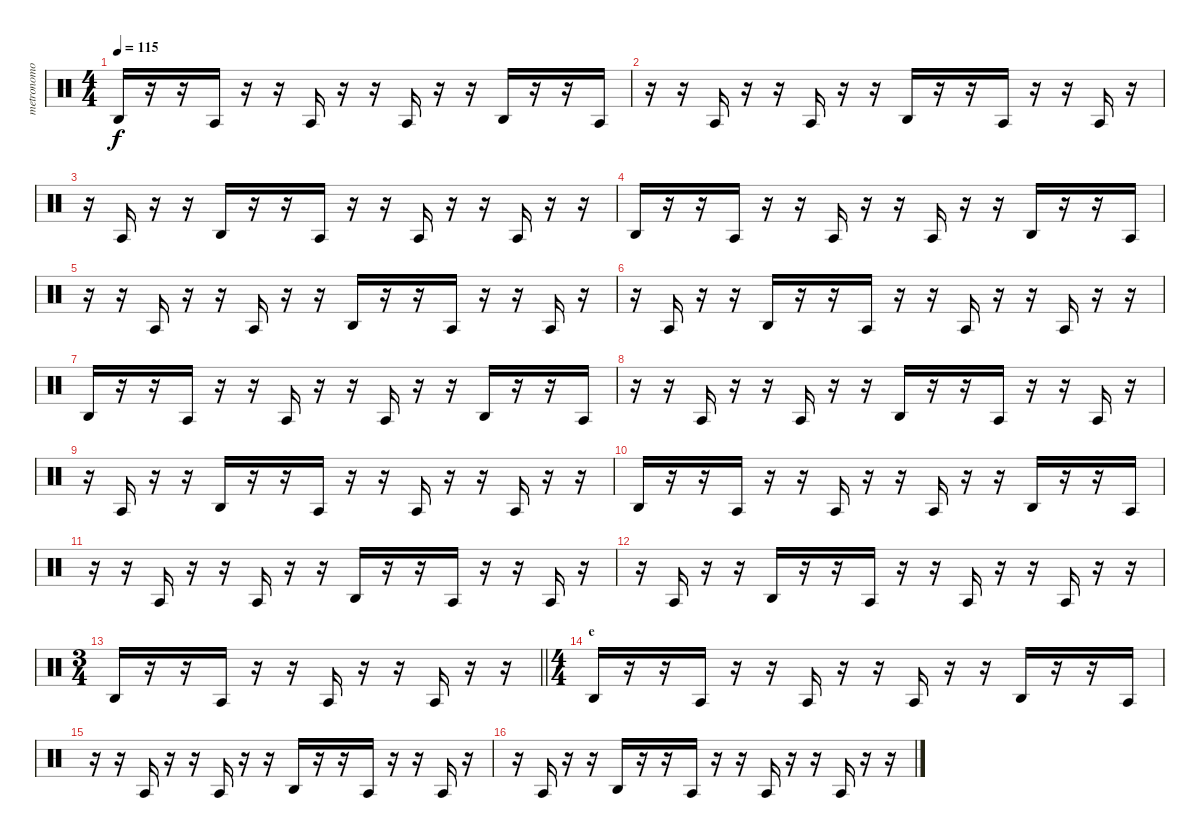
\track ("metronomo" "metronomo") {mute instrument percussion}
\staff {score}
\articulation defaults
\ts (4 4)
\tempo 115
\clef neutral
\ks c "Agogo high (hit)".16{dy f}
r.16 r.16 "Agogo tow (hit)".16 r.16 r.16 "Agogo tow (hit)".16 r.16 r.16 "Agogo tow (hit)".16 r.16 r.16 "Agogo high (hit)".16 r.16 r.16 "Agogo tow (hit)".16 |
r.16 r.16 "Agogo tow (hit)".16 r.16 r.16 "Agogo tow (hit)".16 r.16 r.16 "Agogo high (hit)".16 r.16 r.16 "Agogo tow (hit)".16 r.16 r.16 "Agogo tow (hit)".16 r.16 |
r.16 "Agogo tow (hit)".16 r.16 r.16 "Agogo high (hit)".16 r.16 r.16 "Agogo tow (hit)".16 r.16 r.16 "Agogo tow (hit)".16 r.16 r.16 "Agogo tow (hit)".16 r.16 r.16 |
"Agogo high (hit)".16 r.16 r.16 "Agogo tow (hit)".16 r.16 r.16 "Agogo tow (hit)".16 r.16 r.16 "Agogo tow (hit)".16 r.16 r.16 "Agogo high (hit)".16 r.16 r.16 "Agogo tow (hit)".16 |
r.16 r.16 "Agogo tow (hit)".16 r.16 r.16 "Agogo tow (hit)".16 r.16 r.16 "Agogo high (hit)".16 r.16 r.16 "Agogo tow (hit)".16 r.16 r.16 "Agogo tow (hit)".16 r.16 |
r.16 "Agogo tow (hit)".16 r.16 r.16 "Agogo high (hit)".16 r.16 r.16 "Agogo tow (hit)".16 r.16 r.16 "Agogo tow (hit)".16 r.16 r.16 "Agogo tow (hit)".16 r.16 r.16 |
"Agogo high (hit)".16 r.16 r.16 "Agogo tow (hit)".16 r.16 r.16 "Agogo tow (hit)".16 r.16 r.16 "Agogo tow (hit)".16 r.16 r.16 "Agogo high (hit)".16 r.16 r.16 "Agogo tow (hit)".16 |
r.16 r.16 "Agogo tow (hit)".16 r.16 r.16 "Agogo tow (hit)".16 r.16 r.16 "Agogo high (hit)".16 r.16 r.16 "Agogo tow (hit)".16 r.16 r.16 "Agogo tow (hit)".16 r.16 |
r.16 "Agogo tow (hit)".16 r.16 r.16 "Agogo high (hit)".16 r.16 r.16 "Agogo tow (hit)".16 r.16 r.16 "Agogo tow (hit)".16 r.16 r.16 "Agogo tow (hit)".16 r.16 r.16 |
"Agogo high (hit)".16 r.16 r.16 "Agogo tow (hit)".16 r.16 r.16 "Agogo tow (hit)".16 r.16 r.16 "Agogo tow (hit)".16 r.16 r.16 "Agogo high (hit)".16 r.16 r.16 "Agogo tow (hit)".16 |
r.16 r.16 "Agogo tow (hit)".16 r.16 r.16 "Agogo tow (hit)".16 r.16 r.16 "Agogo high (hit)".16 r.16 r.16 "Agogo tow (hit)".16 r.16 r.16 "Agogo tow (hit)".16 r.16 |
r.16 "Agogo tow (hit)".16 r.16 r.16 "Agogo high (hit)".16 r.16 r.16 "Agogo tow (hit)".16 r.16 r.16 "Agogo tow (hit)".16 r.16 r.16 "Agogo tow (hit)".16 r.16 r.16 |
\ts (3 4)
\barLineRight lightlight "Agogo high (hit)".16
r.16 r.16 "Agogo tow (hit)".16 r.16 r.16 "Agogo tow (hit)".16 r.16 r.16 "Agogo tow (hit)".16 r.16 r.16 |
\ts (4 4)
\section ("" "e")
"Agogo high (hit)".16 r.16 r.16 "Agogo tow (hit)".16 r.16 r.16 "Agogo tow (hit)".16 r.16 r.16 "Agogo tow (hit)".16 r.16 r.16 "Agogo high (hit)".16 r.16 r.16 "Agogo tow (hit)".16 |
r.16 r.16 "Agogo tow (hit)".16 r.16 r.16 "Agogo tow (hit)".16 r.16 r.16 "Agogo high (hit)".16 r.16 r.16 "Agogo tow (hit)".16 r.16 r.16 "Agogo tow (hit)".16 r.16 |
r.16 "Agogo tow (hit)".16 r.16 r.16 "Agogo high (hit)".16 r.16 r.16 "Agogo tow (hit)".16 r.16 r.16 "Agogo tow (hit)".16 r.16 r.16 "Agogo tow (hit)".16 r.16 r.16
